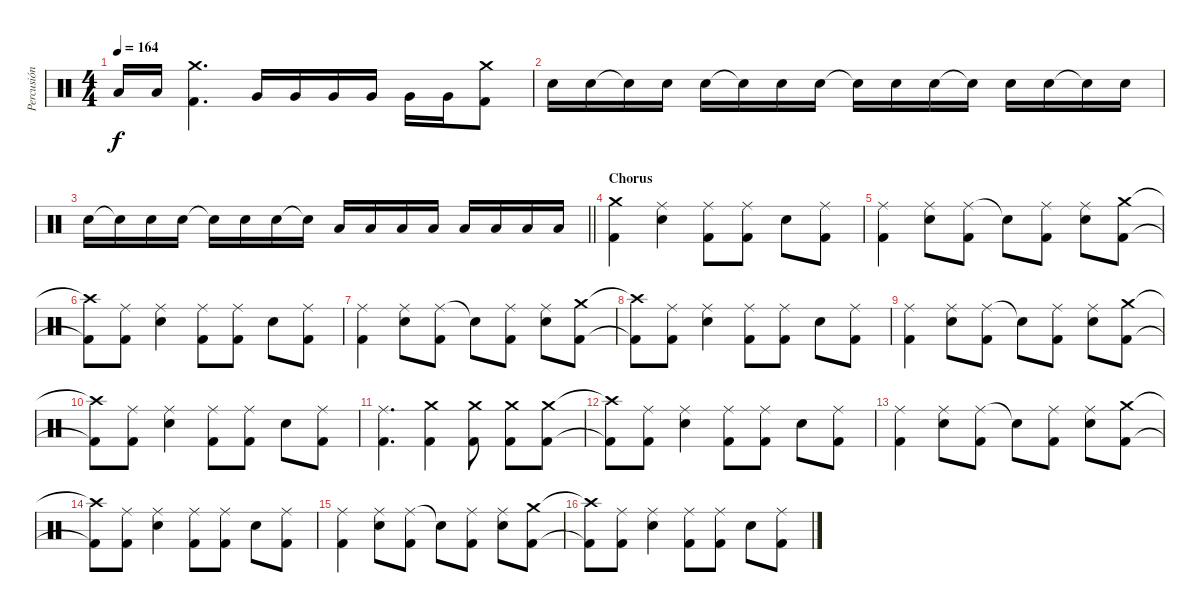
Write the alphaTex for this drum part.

\track ("Percusión" "Percusión") {instrument percussion}
\staff
\articulation defaults
\ts (4 4)
\tempo 164
\clef neutral
\ks c "Low Tom (hit)".16{dy f} "Low Tom (hit)".16
("Crash medium (hit)" "Kick (hit) 2").4{d} "Very Low Tom (hit)".16 "Very Low Tom (hit)".16 "Very Low Tom (hit)".16 "Very Low Tom (hit)".16 "Very Low Tom (hit)".16 "Very Low Tom (hit)".16 ("Crash medium (hit)" "Kick (hit) 2").8 |
"Snare (hit) 2".16 "Snare (hit) 2".16 "Snare (hit)"{t}.16 "Snare (hit) 2".16 "Snare (hit) 2".16 "Snare (hit)"{t}.16 "Snare (hit) 2".16 "Snare (hit) 2".16 "Snare (hit)"{t}.16 "Snare (hit) 2".16 "Snare (hit) 2".16 "Snare (hit)"{t}.16 "Snare (hit) 2".16 "Snare (hit) 2".16 "Snare (hit)"{t}.16 "Snare (hit) 2".16 |
\barLineRight lightlight "Snare (hit) 2".16 "Snare (hit)"{t}.16 "Snare (hit) 2".16 "Snare (hit) 2".16 "Snare (hit)"{t}.16 "Snare (hit) 2".16 "Snare (hit) 2".16 "Snare (hit)"{t}.16 "Low Tom (hit)".16 "Low Tom (hit)".16 "Low Tom (hit)".16 "Low Tom (hit)".16 "Low Tom (hit)".16 "Low Tom (hit)".16 "Low Tom (hit)".16 "Low Tom (hit)".16
|
\section ("" "Chorus")
("Crash medium (hit)" "Kick (hit) 2").4 ("Ride (middle)" "Snare (hit) 2").4 ("Ride (middle)" "Kick (hit) 2").8 ("Ride (middle)" "Kick (hit) 2").8 "Snare (hit) 2".8 ("Ride (middle)" "Kick (hit) 2").8 |
("Ride (middle)" "Kick (hit) 2").4 ("Ride (middle)" "Snare (hit) 2").8 ("Ride (middle)" "Kick (hit) 2").8 "Snare (hit)"{t}.8 ("Ride (middle)" "Kick (hit) 2").8 ("Ride (middle)" "Snare (hit) 2").8 ("Crash medium (hit)" "Kick (hit) 2").8 |
("Crash high (hit)"{t} "Kick (hit) 2"{t}).8 ("Ride (middle)" "Kick (hit) 2").8 ("Ride (middle)" "Snare (hit) 2").4 ("Ride (middle)" "Kick (hit) 2").8 ("Ride (middle)" "Kick (hit) 2").8 "Snare (hit) 2".8 ("Ride (middle)" "Kick (hit) 2").8 |
("Ride (middle)" "Kick (hit) 2").4 ("Ride (middle)" "Snare (hit) 2").8 ("Ride (middle)" "Kick (hit) 2").8 "Snare (hit)"{t}.8 ("Ride (middle)" "Kick (hit) 2").8 ("Ride (middle)" "Snare (hit) 2").8 ("Crash medium (hit)" "Kick (hit) 2").8 |
("Crash high (hit)"{t} "Kick (hit) 2"{t}).8 ("Ride (middle)" "Kick (hit) 2").8 ("Ride (middle)" "Snare (hit) 2").4 ("Ride (middle)" "Kick (hit) 2").8 ("Ride (middle)" "Kick (hit) 2").8 "Snare (hit) 2".8 ("Ride (middle)" "Kick (hit) 2").8 |
("Ride (middle)" "Kick (hit) 2").4 ("Ride (middle)" "Snare (hit) 2").8 ("Ride (middle)" "Kick (hit) 2").8 "Snare (hit)"{t}.8 ("Ride (middle)" "Kick (hit) 2").8 ("Ride (middle)" "Snare (hit) 2").8 ("Crash medium (hit)" "Kick (hit) 2").8 |
("Crash high (hit)"{t} "Kick (hit) 2"{t}).8 ("Ride (middle)" "Kick (hit) 2").8 ("Ride (middle)" "Snare (hit) 2").4 ("Ride (middle)" "Kick (hit) 2").8 ("Ride (middle)" "Kick (hit) 2").8 "Snare (hit) 2".8 ("Ride (middle)" "Kick (hit) 2").8 |
("Ride (middle)" "Kick (hit) 2").4{d} ("Crash medium (hit)" "Kick (hit) 2").4 ("Crash medium (hit)" "Kick (hit) 2").8 ("Crash medium (hit)" "Kick (hit) 2").8 ("Crash medium (hit)" "Kick (hit) 2").8 |
("Crash high (hit)"{t} "Kick (hit) 2"{t}).8 ("Ride (middle)" "Kick (hit) 2").8 ("Ride (middle)" "Snare (hit) 2").4 ("Ride (middle)" "Kick (hit) 2").8 ("Ride (middle)" "Kick (hit) 2").8 "Snare (hit) 2".8 ("Ride (middle)" "Kick (hit) 2").8 |
("Ride (middle)" "Kick (hit) 2").4 ("Ride (middle)" "Snare (hit) 2").8 ("Ride (middle)" "Kick (hit) 2").8 "Snare (hit)"{t}.8 ("Ride (middle)" "Kick (hit) 2").8 ("Ride (middle)" "Snare (hit) 2").8 ("Crash medium (hit)" "Kick (hit) 2").8 |
("Crash high (hit)"{t} "Kick (hit) 2"{t}).8 ("Ride (middle)" "Kick (hit) 2").8 ("Ride (middle)" "Snare (hit) 2").4 ("Ride (middle)" "Kick (hit) 2").8 ("Ride (middle)" "Kick (hit) 2").8 "Snare (hit) 2".8 ("Ride (middle)" "Kick (hit) 2").8 |
("Ride (middle)" "Kick (hit) 2").4 ("Ride (middle)" "Snare (hit) 2").8 ("Ride (middle)" "Kick (hit) 2").8 "Snare (hit)"{t}.8 ("Ride (middle)" "Kick (hit) 2").8 ("Ride (middle)" "Snare (hit) 2").8 ("Crash medium (hit)" "Kick (hit) 2").8 |
("Crash high (hit)"{t} "Kick (hit) 2"{t}).8 ("Ride (middle)" "Kick (hit) 2").8 ("Ride (middle)" "Snare (hit) 2").4 ("Ride (middle)" "Kick (hit) 2").8 ("Ride (middle)" "Kick (hit) 2").8 "Snare (hit) 2".8 ("Ride (middle)" "Kick (hit) 2").8
